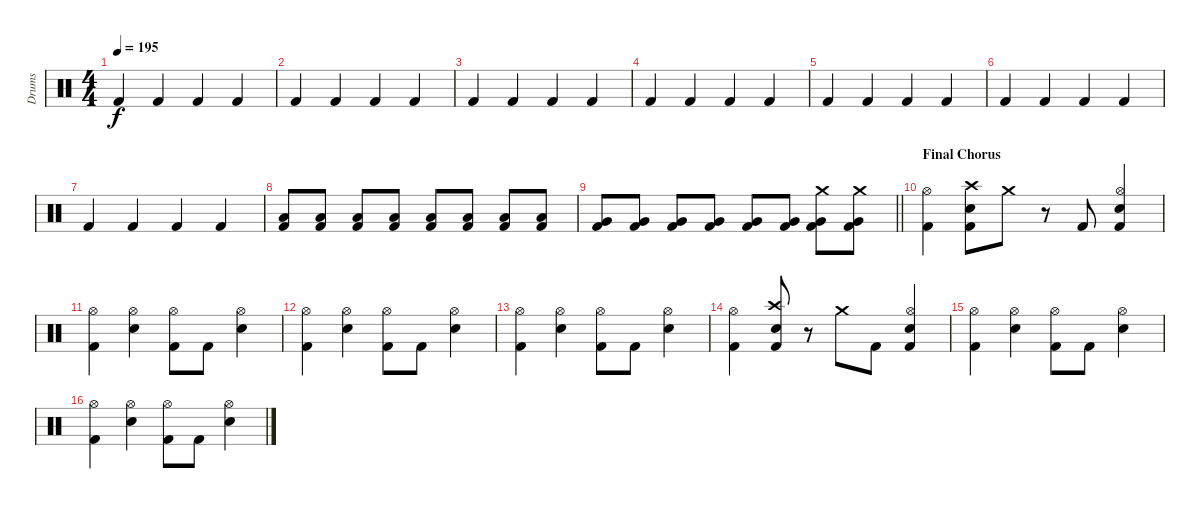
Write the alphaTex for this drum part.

\track ("Drums" "Drums") {instrument percussion}
\staff {score}
\articulation defaults
\ts (4 4)
\tempo 195
\clef neutral
\ks c "Kick (hit) 2".4{dy f} "Kick (hit) 2".4 "Kick (hit) 2".4 "Kick (hit) 2".4
|
"Kick (hit) 2".4 "Kick (hit) 2".4 "Kick (hit) 2".4 "Kick (hit) 2".4 |
"Kick (hit) 2".4 "Kick (hit) 2".4 "Kick (hit) 2".4 "Kick (hit) 2".4 |
"Kick (hit) 2".4 "Kick (hit) 2".4 "Kick (hit) 2".4 "Kick (hit) 2".4 |
"Kick (hit) 2".4 "Kick (hit) 2".4 "Kick (hit) 2".4 "Kick (hit) 2".4 |
"Kick (hit) 2".4 "Kick (hit) 2".4 "Kick (hit) 2".4 "Kick (hit) 2".4 |
"Kick (hit) 2".4 "Kick (hit) 2".4 "Kick (hit) 2".4 "Kick (hit) 2".4 |
("Low Floor Tom (hit)" "Kick (hit) 2").8 ("Low Floor Tom (hit)" "Kick (hit) 2").8 ("Low Floor Tom (hit)" "Kick (hit) 2").8 ("Low Floor Tom (hit)" "Kick (hit) 2").8 ("Low Floor Tom (hit)" "Kick (hit) 2").8 ("Low Floor Tom (hit)" "Kick (hit) 2").8 ("Low Floor Tom (hit)" "Kick (hit) 2").8 ("Low Floor Tom (hit)" "Kick (hit) 2").8 |
\barLineRight lightlight
("Very Low Tom (hit)" "Kick (hit) 2").8 ("Very Low Tom (hit)" "Kick (hit) 2").8 ("Very Low Tom (hit)" "Kick (hit) 2").8 ("Very Low Tom (hit)" "Kick (hit) 2").8 ("Very Low Tom (hit)" "Kick (hit) 2").8 ("Very Low Tom (hit)" "Kick (hit) 2").8 ("Crash medium (hit)" "Very Low Tom (hit)" "Kick (hit) 2").8 ("Crash medium (hit)" "Very Low Tom (hit)" "Kick (hit) 2").8 |
\section ("" "Final Chorus")
("Hi-Hat (open)" "Kick (hit) 2").4 ("Crash high (hit)" "Snare (hit) 2" "Kick (hit) 2").8 "Crash medium (hit)".8 r.8 "Kick (hit) 2".8 ("Hi-Hat (open)" "Snare (hit) 2" "Kick (hit) 2").4 |
("Hi-Hat (open)" "Kick (hit) 2").4 ("Hi-Hat (open)" "Snare (hit) 2").4 ("Hi-Hat (open)" "Kick (hit) 2").8 "Kick (hit) 2".8 ("Hi-Hat (open)" "Snare (hit) 2").4 |
("Hi-Hat (open)" "Kick (hit) 2").4 ("Hi-Hat (open)" "Snare (hit) 2").4 ("Hi-Hat (open)" "Kick (hit) 2").8 "Kick (hit) 2".8 ("Hi-Hat (open)" "Snare (hit) 2").4 |
("Hi-Hat (open)" "Kick (hit) 2").4 ("Hi-Hat (open)" "Snare (hit) 2").4 ("Hi-Hat (open)" "Kick (hit) 2").8 "Kick (hit) 2".8 ("Hi-Hat (open)" "Snare (hit) 2").4 |
("Hi-Hat (open)" "Kick (hit) 2").4 ("Crash high (hit)" "Snare (hit) 2" "Kick (hit) 2").8 r.8 "Crash medium (hit)".8 "Kick (hit) 2".8 ("Hi-Hat (open)" "Snare (hit) 2" "Kick (hit) 2").4 |
("Hi-Hat (open)" "Kick (hit) 2").4 ("Hi-Hat (open)" "Snare (hit) 2").4 ("Hi-Hat (open)" "Kick (hit) 2").8 "Kick (hit) 2".8 ("Hi-Hat (open)" "Snare (hit) 2").4 |
("Hi-Hat (open)" "Kick (hit) 2").4 ("Hi-Hat (open)" "Snare (hit) 2").4 ("Hi-Hat (open)" "Kick (hit) 2").8 "Kick (hit) 2".8 ("Hi-Hat (open)" "Snare (hit) 2").4
